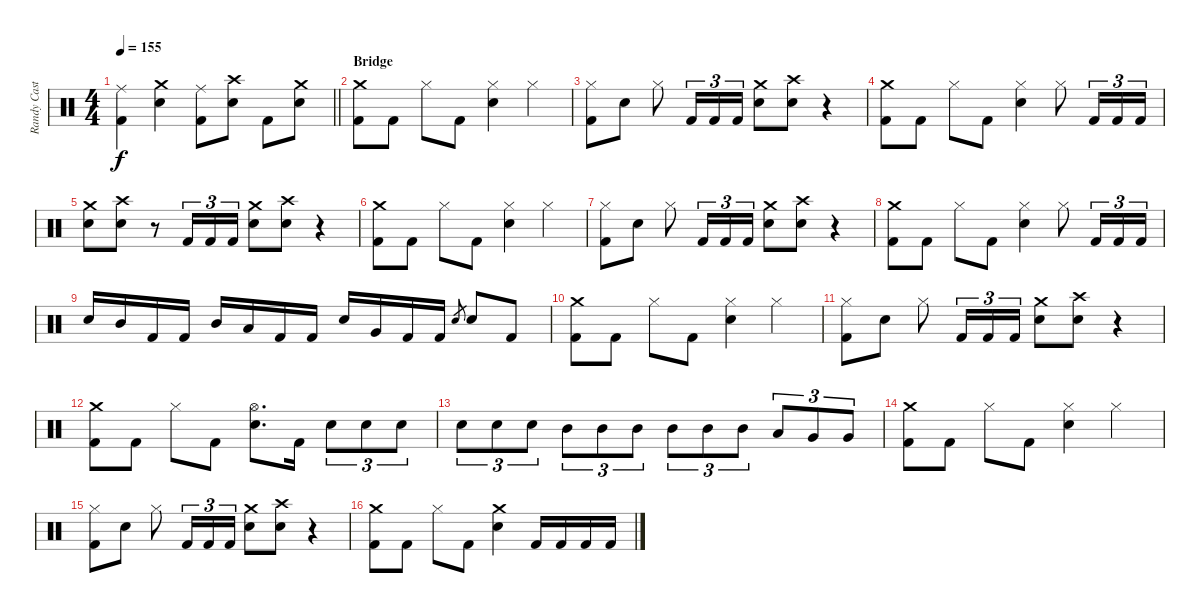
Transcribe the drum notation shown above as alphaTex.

\track ("Randy Castillo - Drums" "Randy Cast") {instrument percussion}
\staff {score}
\articulation defaults
\ts (4 4)
\tempo 155
\clef neutral
\barLineRight lightlight
\ks c
("Ride (middle)" "Kick (hit) 2").4{dy f} ("Crash medium (hit)" "Snare (hit) 2").4 ("Ride (middle)" "Kick (hit) 2").8 ("Crash high (hit)" "Snare (hit) 2").8 "Kick (hit) 2".8 ("Crash medium (hit)" "Snare (hit) 2").8 |
\section ("" "Bridge")
("Crash medium (hit)" "Kick (hit) 2").8 "Kick (hit) 2".8 "Hi-Hat (closed)".8 "Kick (hit) 2".8 ("Hi-Hat (closed)" "Snare (hit) 2").4 "Hi-Hat (closed)".4 |
("Hi-Hat (closed)" "Kick (hit) 2").8 "Snare (hit) 2".8 "Hi-Hat (closed)".8 "Kick (hit) 2".16{tu (3 2)} "Kick (hit) 2".16{tu (3 2)} "Kick (hit) 2".16{tu (3 2)} ("Crash medium (hit)" "Snare (hit) 2").8 ("Crash high (hit)" "Snare (hit) 2").8 r.4 |
("Crash medium (hit)" "Kick (hit) 2").8 "Kick (hit) 2".8 "Hi-Hat (closed)".8 "Kick (hit) 2".8 ("Hi-Hat (closed)" "Snare (hit) 2").4 "Hi-Hat (closed)".8 "Kick (hit) 2".16{tu (3 2)} "Kick (hit) 2".16{tu (3 2)} "Kick (hit) 2".16{tu (3 2)} |
("Crash medium (hit)" "Snare (hit) 2").8 ("Crash high (hit)" "Snare (hit) 2").8 r.8 "Kick (hit) 2".16{tu (3 2)} "Kick (hit) 2".16{tu (3 2)} "Kick (hit) 2".16{tu (3 2)} ("Crash medium (hit)" "Snare (hit) 2").8 ("Crash high (hit)" "Snare (hit) 2").8 r.4 |
("Crash medium (hit)" "Kick (hit) 2").8 "Kick (hit) 2".8 "Hi-Hat (closed)".8 "Kick (hit) 2".8 ("Hi-Hat (closed)" "Snare (hit) 2").4 "Hi-Hat (closed)".4 |
("Hi-Hat (closed)" "Kick (hit) 2").8 "Snare (hit) 2".8 "Hi-Hat (closed)".8 "Kick (hit) 2".16{tu (3 2)} "Kick (hit) 2".16{tu (3 2)} "Kick (hit) 2".16{tu (3 2)} ("Crash medium (hit)" "Snare (hit) 2").8 ("Crash high (hit)" "Snare (hit) 2").8 r.4 |
("Crash medium (hit)" "Kick (hit) 2").8 "Kick (hit) 2".8 "Hi-Hat (closed)".8 "Kick (hit) 2".8 ("Hi-Hat (closed)" "Snare (hit) 2").4 "Hi-Hat (closed)".8 "Kick (hit) 2".16{tu (3 2)} "Kick (hit) 2".16{tu (3 2)} "Kick (hit) 2".16{tu (3 2)} |
"Snare (hit) 2".16 "Mid Tom (hit)".16 "Kick (hit) 2".16 "Kick (hit) 2".16 "Mid Tom (hit)".16 "Low Tom (hit)".16 "Kick (hit) 2".16 "Kick (hit) 2".16 "Snare (hit) 2".16 "Very Low Tom (hit)".16 "Kick (hit) 2".16 "Kick (hit) 2".16 "Snare (hit) 2".8{gr} "Snare (hit) 2".8 "Kick (hit) 2".8 |
("Crash medium (hit)" "Kick (hit) 2").8 "Kick (hit) 2".8 "Hi-Hat (closed)".8 "Kick (hit) 2".8 ("Hi-Hat (closed)" "Snare (hit) 2").4 "Hi-Hat (closed)".4 |
("Hi-Hat (closed)" "Kick (hit) 2").8 "Snare (hit) 2".8 "Hi-Hat (closed)".8 "Kick (hit) 2".16{tu (3 2)} "Kick (hit) 2".16{tu (3 2)} "Kick (hit) 2".16{tu (3 2)} ("Crash medium (hit)" "Snare (hit) 2").8 ("Crash high (hit)" "Snare (hit) 2").8 r.4 |
("Crash medium (hit)" "Kick (hit) 2").8 "Kick (hit) 2".8 "Hi-Hat (closed)".8 "Kick (hit) 2".8 ("Hi-Hat (open)" "Snare (hit) 2").8{d} "Kick (hit) 2".16 "Snare (hit) 2".8{tu (3 2)} "Snare (hit) 2".8{tu (3 2)} "Snare (hit) 2".8{tu (3 2)} |
"Snare (hit) 2".8{tu (3 2)} "Snare (hit) 2".8{tu (3 2)} "Snare (hit) 2".8{tu (3 2)} "Mid Tom (hit)".8{tu (3 2)} "Mid Tom (hit)".8{tu (3 2)} "Mid Tom (hit)".8{tu (3 2)} "Mid Tom (hit)".8{tu (3 2)} "Mid Tom (hit)".8{tu (3 2)} "Mid Tom (hit)".8{tu (3 2)} "Low Tom (hit)".8{tu (3 2)} "Very Low Tom (hit)".8{tu (3 2)} "Very Low Tom (hit)".8{tu (3 2)} |
("Crash medium (hit)" "Kick (hit) 2").8 "Kick (hit) 2".8 "Hi-Hat (closed)".8 "Kick (hit) 2".8 ("Hi-Hat (closed)" "Snare (hit) 2").4 "Hi-Hat (closed)".4 |
("Hi-Hat (closed)" "Kick (hit) 2").8 "Snare (hit) 2".8 "Hi-Hat (closed)".8 "Kick (hit) 2".16{tu (3 2)} "Kick (hit) 2".16{tu (3 2)} "Kick (hit) 2".16{tu (3 2)} ("Crash medium (hit)" "Snare (hit) 2").8 ("Crash high (hit)" "Snare (hit) 2").8 r.4 |
("Crash medium (hit)" "Kick (hit) 2").8 "Kick (hit) 2".8 "Hi-Hat (closed)".8 "Kick (hit) 2".8 ("Crash medium (hit)" "Snare (hit) 2").4 "Kick (hit) 2".16 "Kick (hit) 2".16 "Kick (hit) 2".16 "Kick (hit) 2".16
